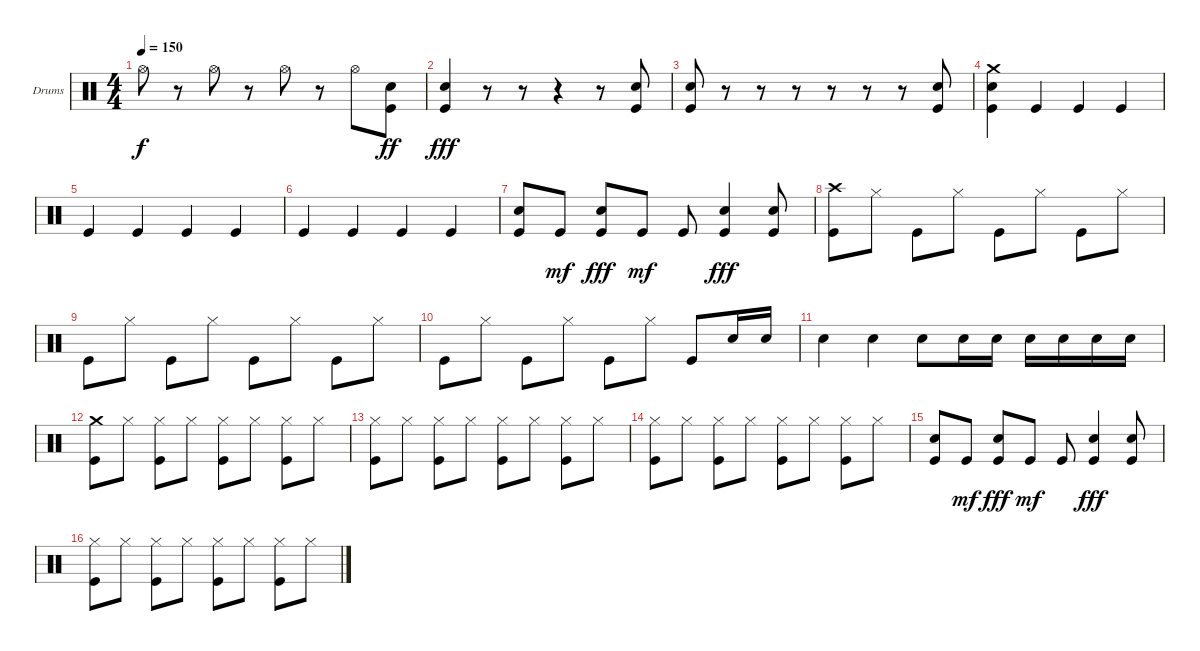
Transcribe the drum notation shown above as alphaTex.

\bracketExtendMode groupsimilarinstruments
\firstSystemTrackNameOrientation horizontal
\otherSystemsTrackNameOrientation horizontal
\track ("Jamie" "Drums") {instrument percussion}
\staff {score}
\articulation defaults
\ts (4 4)
\tempo 150
\clef neutral
\ks c "Hi-Hat (open)".8{dy f}
r.8 "Hi-Hat (open)".8 r.8 "Hi-Hat (open)".8 r.8 "Hi-Hat (open)".8 ("Kick (hit)" "Snare (hit) 2").8{dy ff} |
("Kick (hit)" "Snare (hit) 2").4{dy fff} r.8 r.8 r.4 r.8 ("Kick (hit)" "Snare (hit) 2").8 |
("Kick (hit)" "Snare (hit) 2").8 r.8 r.8 r.8 r.8 r.8 r.8 ("Kick (hit)" "Snare (hit) 2").8 |
("Kick (hit)" "Snare (hit) 2" "Crash medium (hit)").4 "Kick (hit)".4 "Kick (hit)".4 "Kick (hit)".4 |
"Kick (hit)".4 "Kick (hit)".4 "Kick (hit)".4 "Kick (hit)".4 |
"Kick (hit)".4 "Kick (hit)".4 "Kick (hit)".4 "Kick (hit)".4 |
("Snare (hit) 2" "Kick (hit)").8 "Kick (hit)".8{dy mf} ("Snare (hit) 2" "Kick (hit)").8{dy fff} "Kick (hit)".8{dy mf} "Kick (hit)".8 ("Snare (hit) 2" "Kick (hit)").4{dy fff} ("Snare (hit) 2" "Kick (hit)").8 |
("Kick (hit)" "Crash high (hit)").8 "Hi-Hat (closed)".8 "Kick (hit)".8 "Hi-Hat (closed)".8 "Kick (hit)".8 "Hi-Hat (closed)".8 "Kick (hit)".8 "Hi-Hat (closed)".8 |
"Kick (hit)".8 "Hi-Hat (closed)".8 "Kick (hit)".8 "Hi-Hat (closed)".8 "Kick (hit)".8 "Hi-Hat (closed)".8 "Kick (hit)".8 "Hi-Hat (closed)".8 |
"Kick (hit)".8 "Hi-Hat (closed)".8 "Kick (hit)".8 "Hi-Hat (closed)".8 "Kick (hit)".8 "Hi-Hat (closed)".8 "Kick (hit)".8 "Snare (hit) 2".16 "Snare (hit) 2".16 |
"Snare (hit) 2".4 "Snare (hit) 2".4 "Snare (hit) 2".8 "Snare (hit) 2".16 "Snare (hit) 2".16 "Snare (hit) 2".16 "Snare (hit) 2".16 "Snare (hit) 2".16 "Snare (hit) 2".16 |
("Kick (hit)" "Crash medium (hit)").8 "Hi-Hat (closed)".8 ("Kick (hit)" "Hi-Hat (closed)").8 "Hi-Hat (closed)".8 ("Kick (hit)" "Hi-Hat (closed)").8 "Hi-Hat (closed)".8 ("Kick (hit)" "Hi-Hat (closed)").8 "Hi-Hat (closed)".8 |
("Kick (hit)" "Hi-Hat (closed)").8 "Hi-Hat (closed)".8 ("Kick (hit)" "Hi-Hat (closed)").8 "Hi-Hat (closed)".8 ("Kick (hit)" "Hi-Hat (closed)").8 "Hi-Hat (closed)".8 ("Kick (hit)" "Hi-Hat (closed)").8 "Hi-Hat (closed)".8 |
("Kick (hit)" "Hi-Hat (closed)").8 "Hi-Hat (closed)".8 ("Kick (hit)" "Hi-Hat (closed)").8 "Hi-Hat (closed)".8 ("Kick (hit)" "Hi-Hat (closed)").8 "Hi-Hat (closed)".8 ("Kick (hit)" "Hi-Hat (closed)").8 "Hi-Hat (closed)".8 |
("Snare (hit) 2" "Kick (hit)").8 "Kick (hit)".8{dy mf} ("Snare (hit) 2" "Kick (hit)").8{dy fff} "Kick (hit)".8{dy mf} "Kick (hit)".8 ("Snare (hit) 2" "Kick (hit)").4{dy fff} ("Snare (hit) 2" "Kick (hit)").8 |
("Kick (hit)" "Hi-Hat (closed)").8 "Hi-Hat (closed)".8 ("Kick (hit)" "Hi-Hat (closed)").8 "Hi-Hat (closed)".8 ("Kick (hit)" "Hi-Hat (closed)").8 "Hi-Hat (closed)".8 ("Kick (hit)" "Hi-Hat (closed)").8 "Hi-Hat (closed)".8
